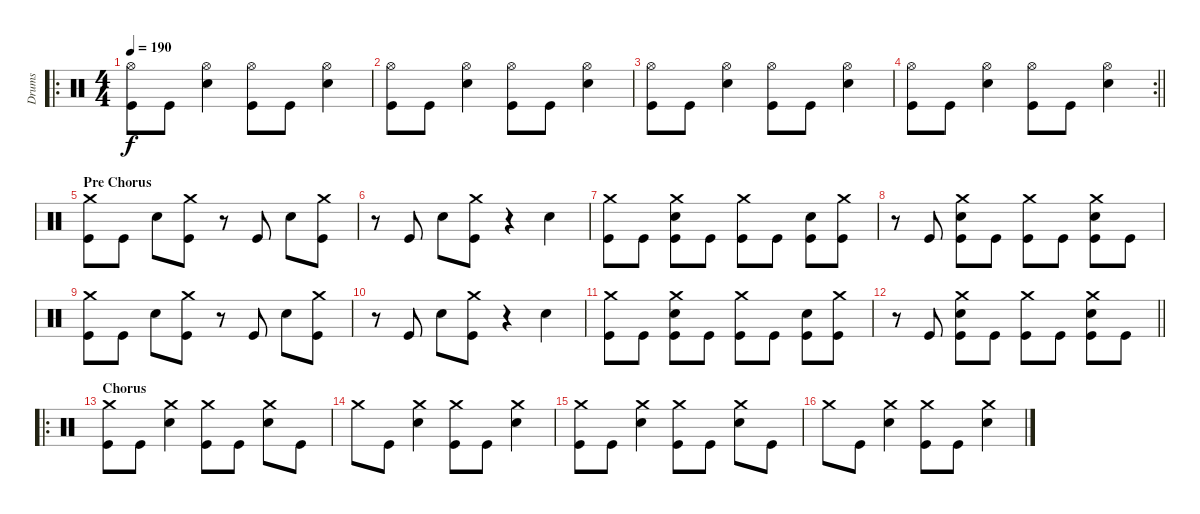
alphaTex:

\track ("Drums" "Drums") {instrument percussion}
\staff {score}
\articulation defaults
\ro
\ts (4 4)
\tempo 190
\clef neutral
\ks c
("Hi-Hat (open)" "Kick (hit)").8{dy f} "Kick (hit)".8 ("Hi-Hat (open)" "Snare (hit) 2").4 ("Hi-Hat (open)" "Kick (hit)").8 "Kick (hit)".8 ("Hi-Hat (open)" "Snare (hit) 2").4 |
("Hi-Hat (open)" "Kick (hit)").8 "Kick (hit)".8 ("Hi-Hat (open)" "Snare (hit) 2").4 ("Hi-Hat (open)" "Kick (hit)").8 "Kick (hit)".8 ("Hi-Hat (open)" "Snare (hit) 2").4 |
("Hi-Hat (open)" "Kick (hit)").8 "Kick (hit)".8 ("Hi-Hat (open)" "Snare (hit) 2").4 ("Hi-Hat (open)" "Kick (hit)").8 "Kick (hit)".8 ("Hi-Hat (open)" "Snare (hit) 2").4 |
\rc 2
\barLineRight lightlight
("Hi-Hat (open)" "Kick (hit)").8 "Kick (hit)".8 ("Hi-Hat (open)" "Snare (hit) 2").4 ("Hi-Hat (open)" "Kick (hit)").8 "Kick (hit)".8 ("Hi-Hat (open)" "Snare (hit) 2").4 |
\section ("" "Pre Chorus")
("Crash medium (hit)" "Kick (hit)").8 "Kick (hit)".8 "Snare (hit) 2".8 ("Crash medium (hit)" "Kick (hit)").8 r.8 "Kick (hit)".8 "Snare (hit) 2".8 ("Crash medium (hit)" "Kick (hit)").8 |
r.8 "Kick (hit)".8 "Snare (hit) 2".8 ("Crash medium (hit)" "Kick (hit)").8 r.4 "Snare (hit) 2".4 |
("Crash medium (hit)" "Kick (hit)").8 "Kick (hit)".8 ("Crash medium (hit)" "Snare (hit) 2" "Kick (hit)").8 "Kick (hit)".8 ("Crash medium (hit)" "Kick (hit)").8 "Kick (hit)".8 ("Snare (hit) 2" "Kick (hit)").8 ("Crash medium (hit)" "Kick (hit)").8 |
r.8 "Kick (hit)".8 ("Crash medium (hit)" "Snare (hit) 2" "Kick (hit)").8 "Kick (hit)".8 ("Crash medium (hit)" "Kick (hit)").8 "Kick (hit)".8 ("Crash medium (hit)" "Snare (hit) 2" "Kick (hit)").8 "Kick (hit)".8 |
("Crash medium (hit)" "Kick (hit)").8 "Kick (hit)".8 "Snare (hit) 2".8 ("Crash medium (hit)" "Kick (hit)").8 r.8 "Kick (hit)".8 "Snare (hit) 2".8 ("Crash medium (hit)" "Kick (hit)").8 |
r.8 "Kick (hit)".8 "Snare (hit) 2".8 ("Crash medium (hit)" "Kick (hit)").8 r.4 "Snare (hit) 2".4 |
("Crash medium (hit)" "Kick (hit)").8 "Kick (hit)".8 ("Crash medium (hit)" "Snare (hit) 2" "Kick (hit)").8 "Kick (hit)".8 ("Crash medium (hit)" "Kick (hit)").8 "Kick (hit)".8 ("Snare (hit) 2" "Kick (hit)").8 ("Crash medium (hit)" "Kick (hit)").8 |
\barLineRight lightlight
r.8 "Kick (hit)".8 ("Crash medium (hit)" "Snare (hit) 2" "Kick (hit)").8 "Kick (hit)".8 ("Crash medium (hit)" "Kick (hit)").8 "Kick (hit)".8 ("Crash medium (hit)" "Snare (hit) 2" "Kick (hit)").8 "Kick (hit)".8 |
\ro
\section ("" "Chorus")
("Crash medium (hit)" "Kick (hit)").8 "Kick (hit)".8 ("Crash medium (hit)" "Snare (hit) 2").4 ("Crash medium (hit)" "Kick (hit)").8 "Kick (hit)".8 ("Crash medium (hit)" "Snare (hit) 2").8 "Kick (hit)".8 |
"Crash medium (hit)".8 "Kick (hit)".8 ("Crash medium (hit)" "Snare (hit) 2").4 ("Crash medium (hit)" "Kick (hit)").8 "Kick (hit)".8 ("Crash medium (hit)" "Snare (hit) 2").4 |
("Crash medium (hit)" "Kick (hit)").8 "Kick (hit)".8 ("Crash medium (hit)" "Snare (hit) 2").4 ("Crash medium (hit)" "Kick (hit)").8 "Kick (hit)".8 ("Crash medium (hit)" "Snare (hit) 2").8 "Kick (hit)".8 |
"Crash medium (hit)".8 "Kick (hit)".8 ("Crash medium (hit)" "Snare (hit) 2").4 ("Crash medium (hit)" "Kick (hit)").8 "Kick (hit)".8 ("Crash medium (hit)" "Snare (hit) 2").4
